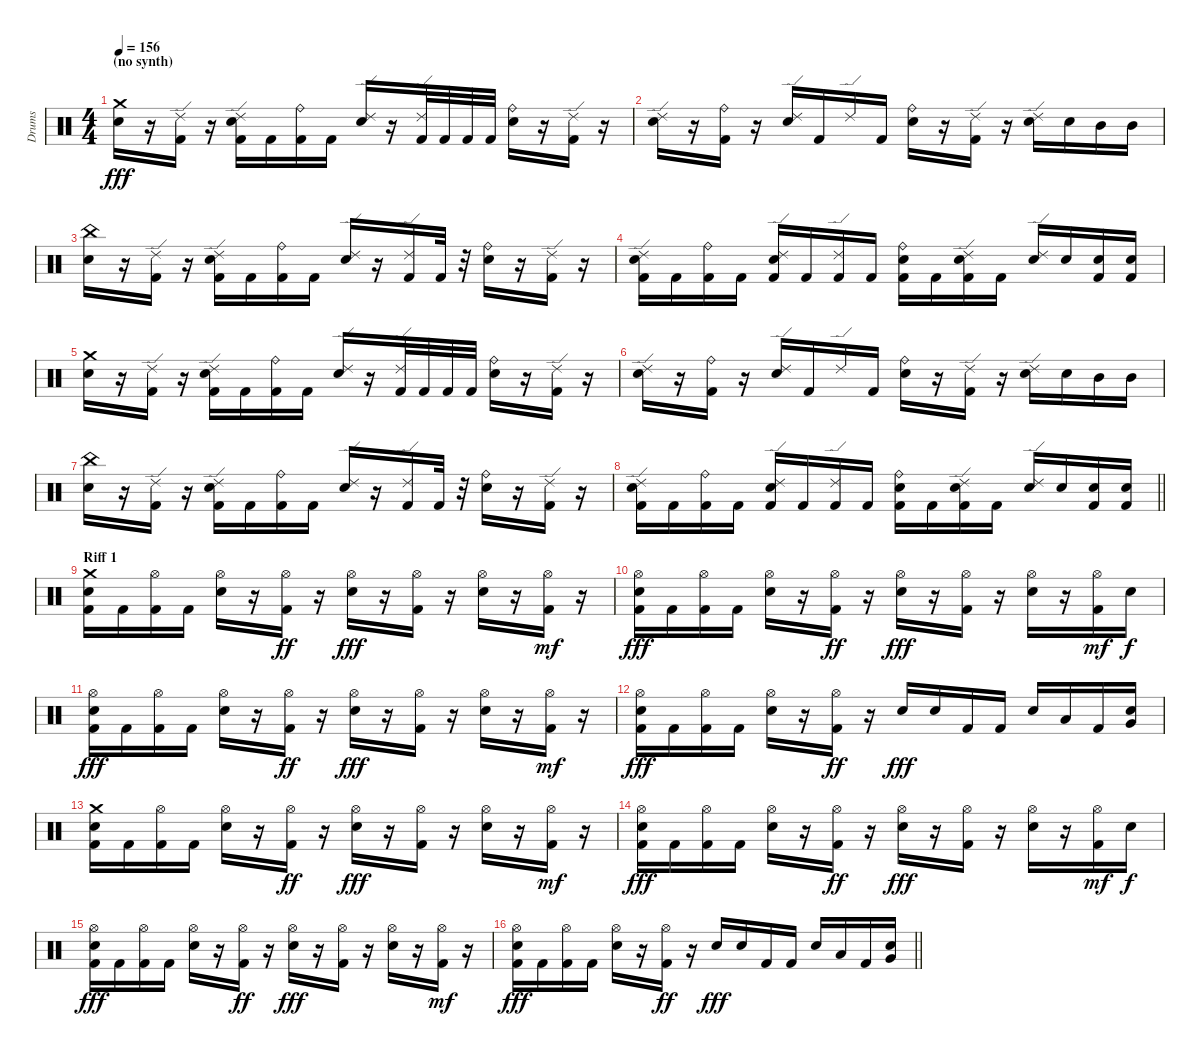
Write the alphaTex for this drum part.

\track ("Drums" "Drums") {instrument percussion}
\staff {score}
\articulation defaults
\ts (4 4)
\section ("" "(no synth)")
\tempo 156
\clef neutral
\ks c
("Snare (hit) 2" "Crash medium (hit)").16{dy fff} r.16 ("Kick (hit) 2" "Ride (edge) 2").16 r.16 ("Kick (hit) 2" "Snare (hit) 2" "Ride (edge) 2").16 "Kick (hit) 2".16 ("Kick (hit) 2" "Ride (bell)").16 "Kick (hit) 2".16 ("Snare (hit) 2" "Ride (edge) 2").16 r.16 ("Kick (hit) 2" "Ride (edge) 2").32 "Kick (hit) 2".32 "Kick (hit) 2".32 "Kick (hit) 2".32 ("Snare (hit) 2" "Ride (bell)").16 r.16 ("Kick (hit) 2" "Ride (edge) 2").16 r.16 |
("Snare (hit) 2" "Ride (edge) 2").16 r.16 ("Kick (hit) 2" "Ride (bell)").16 r.16 ("Snare (hit) 2" "Ride (edge) 2").16 "Kick (hit) 2".16 "Ride (edge) 2".16 "Kick (hit) 2".16 ("Snare (hit) 2" "Ride (bell)").16 r.16 ("Kick (hit) 2" "Ride (edge) 2").16 r.16 ("Snare (hit) 2" "Ride (edge) 2").16 "Snare (hit) 2".16 "Mid Tom (hit)".16 "Mid Tom (hit)".16 |
("Snare (hit) 2" "China (hit)").16 r.16 ("Kick (hit) 2" "Ride (edge) 2").16 r.16 ("Kick (hit) 2" "Snare (hit) 2" "Ride (edge) 2").16 "Kick (hit) 2".16 ("Kick (hit) 2" "Ride (bell)").16 "Kick (hit) 2".16 ("Snare (hit) 2" "Ride (edge) 2").16 r.16 ("Kick (hit) 2" "Ride (edge) 2").16 "Kick (hit) 2".32 r.32 ("Snare (hit) 2" "Ride (bell)").16 r.16 ("Kick (hit) 2" "Ride (edge) 2").16 r.16 |
("Kick (hit) 2" "Snare (hit) 2" "Ride (edge) 2").16 "Kick (hit) 2".16 ("Kick (hit) 2" "Ride (bell)").16 "Kick (hit) 2".16 ("Kick (hit) 2" "Snare (hit) 2" "Ride (edge) 2").16 "Kick (hit) 2".16 ("Kick (hit) 2" "Ride (edge) 2").16 "Kick (hit) 2".16 ("Kick (hit) 2" "Snare (hit) 2" "Ride (bell)").16 "Kick (hit) 2".16 ("Kick (hit) 2" "Snare (hit) 2" "Ride (edge) 2").16 "Kick (hit) 2".16 ("Snare (hit) 2" "Ride (edge) 2").16 "Snare (hit) 2".16 ("Kick (hit) 2" "Snare (hit) 2").16 ("Kick (hit) 2" "Snare (hit) 2").16 |
("Snare (hit) 2" "Crash medium (hit)").16 r.16 ("Kick (hit) 2" "Ride (edge) 2").16 r.16 ("Kick (hit) 2" "Snare (hit) 2" "Ride (edge) 2").16 "Kick (hit) 2".16 ("Kick (hit) 2" "Ride (bell)").16 "Kick (hit) 2".16 ("Snare (hit) 2" "Ride (edge) 2").16 r.16 ("Kick (hit) 2" "Ride (edge) 2").32 "Kick (hit) 2".32 "Kick (hit) 2".32 "Kick (hit) 2".32 ("Snare (hit) 2" "Ride (bell)").16 r.16 ("Kick (hit) 2" "Ride (edge) 2").16 r.16 |
("Snare (hit) 2" "Ride (edge) 2").16 r.16 ("Kick (hit) 2" "Ride (bell)").16 r.16 ("Snare (hit) 2" "Ride (edge) 2").16 "Kick (hit) 2".16 "Ride (edge) 2".16 "Kick (hit) 2".16 ("Snare (hit) 2" "Ride (bell)").16 r.16 ("Kick (hit) 2" "Ride (edge) 2").16 r.16 ("Snare (hit) 2" "Ride (edge) 2").16 "Snare (hit) 2".16 "Mid Tom (hit)".16 "Mid Tom (hit)".16 |
("Snare (hit) 2" "China (hit)").16 r.16 ("Kick (hit) 2" "Ride (edge) 2").16 r.16 ("Kick (hit) 2" "Snare (hit) 2" "Ride (edge) 2").16 "Kick (hit) 2".16 ("Kick (hit) 2" "Ride (bell)").16 "Kick (hit) 2".16 ("Snare (hit) 2" "Ride (edge) 2").16 r.16 ("Kick (hit) 2" "Ride (edge) 2").16 "Kick (hit) 2".32 r.32 ("Snare (hit) 2" "Ride (bell)").16 r.16 ("Kick (hit) 2" "Ride (edge) 2").16 r.16 |
\barLineRight lightlight
("Kick (hit) 2" "Snare (hit) 2" "Ride (edge) 2").16 "Kick (hit) 2".16 ("Kick (hit) 2" "Ride (bell)").16 "Kick (hit) 2".16 ("Kick (hit) 2" "Snare (hit) 2" "Ride (edge) 2").16 "Kick (hit) 2".16 ("Kick (hit) 2" "Ride (edge) 2").16 "Kick (hit) 2".16 ("Kick (hit) 2" "Snare (hit) 2" "Ride (bell)").16 "Kick (hit) 2".16 ("Kick (hit) 2" "Snare (hit) 2" "Ride (edge) 2").16 "Kick (hit) 2".16 ("Snare (hit) 2" "Ride (edge) 2").16 "Snare (hit) 2".16 ("Kick (hit) 2" "Snare (hit) 2").16 ("Kick (hit) 2" "Snare (hit) 2").16 |
\section ("" "Riff 1")
("Kick (hit) 2" "Snare (hit) 2" "Crash medium (hit)").16 "Kick (hit) 2".16 ("Kick (hit) 2" "Hi-Hat (open)").16 "Kick (hit) 2".16 ("Snare (hit) 2" "Hi-Hat (open)").16 r.16 ("Kick (hit) 2" "Hi-Hat (open)").16{dy ff} r.16 ("Snare (hit) 2" "Hi-Hat (open)").16{dy fff} r.16 ("Kick (hit) 2" "Hi-Hat (open)").16 r.16 ("Snare (hit) 2" "Hi-Hat (open)").16 r.16 ("Kick (hit) 2" "Hi-Hat (open)").16{dy mf} r.16 |
("Kick (hit) 2" "Snare (hit) 2" "Hi-Hat (open)").16{dy fff} "Kick (hit) 2".16 ("Kick (hit) 2" "Hi-Hat (open)").16 "Kick (hit) 2".16 ("Snare (hit) 2" "Hi-Hat (open)").16 r.16 ("Kick (hit) 2" "Hi-Hat (open)").16{dy ff} r.16 ("Snare (hit) 2" "Hi-Hat (open)").16{dy fff} r.16 ("Kick (hit) 2" "Hi-Hat (open)").16 r.16 ("Snare (hit) 2" "Hi-Hat (open)").16 r.16 ("Kick (hit) 2" "Hi-Hat (open)").16{dy mf} "Snare (hit) 2".16{dy f} |
("Kick (hit) 2" "Snare (hit) 2" "Hi-Hat (open)").16{dy fff} "Kick (hit) 2".16 ("Kick (hit) 2" "Hi-Hat (open)").16 "Kick (hit) 2".16 ("Snare (hit) 2" "Hi-Hat (open)").16 r.16 ("Kick (hit) 2" "Hi-Hat (open)").16{dy ff} r.16 ("Snare (hit) 2" "Hi-Hat (open)").16{dy fff} r.16 ("Kick (hit) 2" "Hi-Hat (open)").16 r.16 ("Snare (hit) 2" "Hi-Hat (open)").16 r.16 ("Kick (hit) 2" "Hi-Hat (open)").16{dy mf} r.16 |
("Kick (hit) 2" "Snare (hit) 2" "Hi-Hat (open)").16{dy fff} "Kick (hit) 2".16 ("Kick (hit) 2" "Hi-Hat (open)").16 "Kick (hit) 2".16 ("Snare (hit) 2" "Hi-Hat (open)").16 r.16 ("Kick (hit) 2" "Hi-Hat (open)").16{dy ff} r.16 "Snare (hit) 2".16{dy fff} "Snare (hit) 2".16 "Kick (hit) 2".16 "Kick (hit) 2".16 "Snare (hit) 2".16 "Low Tom (hit)".16 "Kick (hit) 2".16 ("Snare (hit) 2" "Very Low Tom (hit)").16 |
("Kick (hit) 2" "Snare (hit) 2" "Crash medium (hit)").16 "Kick (hit) 2".16 ("Kick (hit) 2" "Hi-Hat (open)").16 "Kick (hit) 2".16 ("Snare (hit) 2" "Hi-Hat (open)").16 r.16 ("Kick (hit) 2" "Hi-Hat (open)").16{dy ff} r.16 ("Snare (hit) 2" "Hi-Hat (open)").16{dy fff} r.16 ("Kick (hit) 2" "Hi-Hat (open)").16 r.16 ("Snare (hit) 2" "Hi-Hat (open)").16 r.16 ("Kick (hit) 2" "Hi-Hat (open)").16{dy mf} r.16 |
("Kick (hit) 2" "Snare (hit) 2" "Hi-Hat (open)").16{dy fff} "Kick (hit) 2".16 ("Kick (hit) 2" "Hi-Hat (open)").16 "Kick (hit) 2".16 ("Snare (hit) 2" "Hi-Hat (open)").16 r.16 ("Kick (hit) 2" "Hi-Hat (open)").16{dy ff} r.16 ("Snare (hit) 2" "Hi-Hat (open)").16{dy fff} r.16 ("Kick (hit) 2" "Hi-Hat (open)").16 r.16 ("Snare (hit) 2" "Hi-Hat (open)").16 r.16 ("Kick (hit) 2" "Hi-Hat (open)").16{dy mf} "Snare (hit) 2".16{dy f} |
("Kick (hit) 2" "Snare (hit) 2" "Hi-Hat (open)").16{dy fff} "Kick (hit) 2".16 ("Kick (hit) 2" "Hi-Hat (open)").16 "Kick (hit) 2".16 ("Snare (hit) 2" "Hi-Hat (open)").16 r.16 ("Kick (hit) 2" "Hi-Hat (open)").16{dy ff} r.16 ("Snare (hit) 2" "Hi-Hat (open)").16{dy fff} r.16 ("Kick (hit) 2" "Hi-Hat (open)").16 r.16 ("Snare (hit) 2" "Hi-Hat (open)").16 r.16 ("Kick (hit) 2" "Hi-Hat (open)").16{dy mf} r.16 |
\barLineRight lightlight
("Kick (hit) 2" "Snare (hit) 2" "Hi-Hat (open)").16{dy fff} "Kick (hit) 2".16 ("Kick (hit) 2" "Hi-Hat (open)").16 "Kick (hit) 2".16 ("Snare (hit) 2" "Hi-Hat (open)").16 r.16 ("Kick (hit) 2" "Hi-Hat (open)").16{dy ff} r.16 "Snare (hit) 2".16{dy fff} "Snare (hit) 2".16 "Kick (hit) 2".16 "Kick (hit) 2".16 "Snare (hit) 2".16 "Low Tom (hit)".16 "Kick (hit) 2".16 ("Snare (hit) 2" "Very Low Tom (hit)").16
